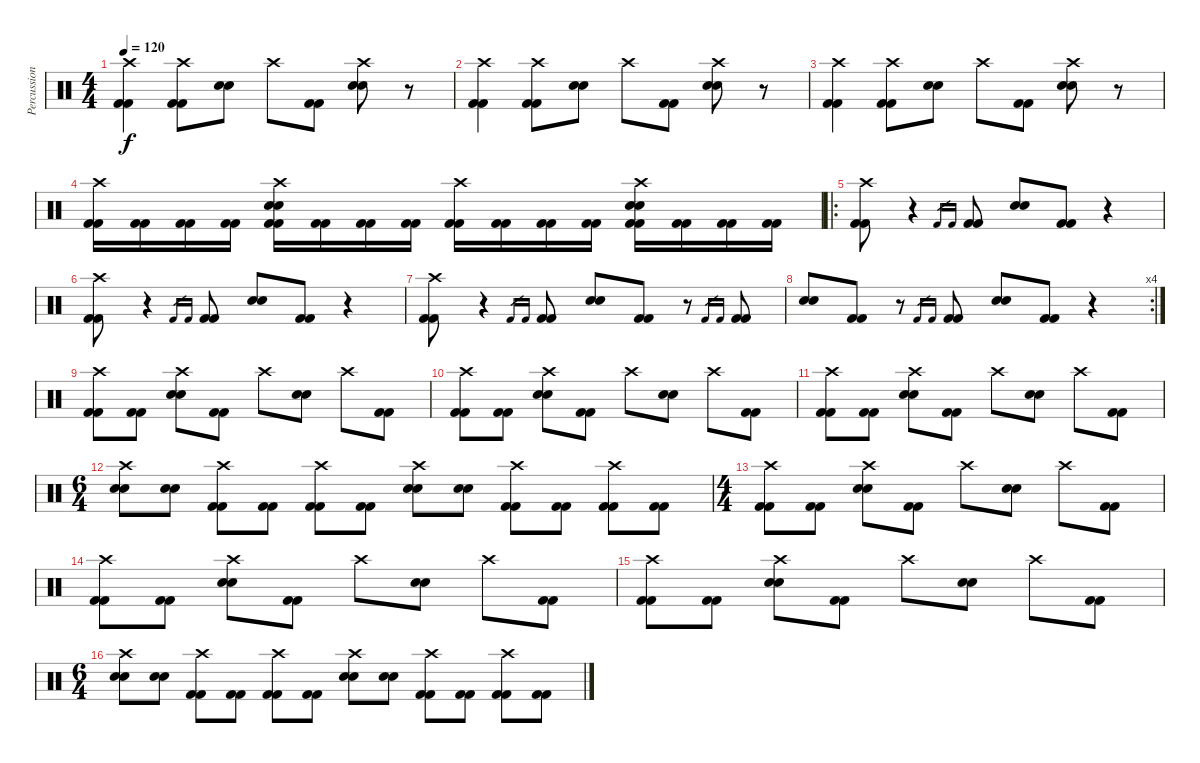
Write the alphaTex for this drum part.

\track ("Percussion" "Percussion") {instrument percussion}
\staff {score}
\articulation defaults
\ts (4 4)
\tempo 120
\clef neutral
\ks c
("Crash high (hit)" "Kick (hit) 2" "Kick (hit) 2").4{dy f} ("Crash high (hit)" "Kick (hit) 2" "Kick (hit) 2").8 ("Snare (hit) 2" "Snare (hit) 2").8 "Crash high (hit)".8 ("Kick (hit) 2" "Kick (hit) 2").8 ("Crash high (hit)" "Snare (hit) 2" "Snare (hit) 2").8 r.8 |
("Crash high (hit)" "Kick (hit) 2" "Kick (hit) 2").4 ("Crash high (hit)" "Kick (hit) 2" "Kick (hit) 2").8 ("Snare (hit) 2" "Snare (hit) 2").8 "Crash high (hit)".8 ("Kick (hit) 2" "Kick (hit) 2").8 ("Crash high (hit)" "Snare (hit) 2" "Snare (hit) 2").8 r.8 |
("Crash high (hit)" "Kick (hit) 2" "Kick (hit) 2").4 ("Crash high (hit)" "Kick (hit) 2" "Kick (hit) 2").8 ("Snare (hit) 2" "Snare (hit) 2").8 "Crash high (hit)".8 ("Kick (hit) 2" "Kick (hit) 2").8 ("Crash high (hit)" "Snare (hit) 2" "Snare (hit) 2").8 r.8 |
("Crash high (hit)" "Kick (hit) 2" "Kick (hit) 2").16 ("Kick (hit) 2" "Kick (hit) 2").16 ("Kick (hit) 2" "Kick (hit) 2").16 ("Kick (hit) 2" "Kick (hit) 2").16 ("Crash high (hit)" "Snare (hit) 2" "Snare (hit) 2" "Kick (hit) 2" "Kick (hit) 2").16 ("Kick (hit) 2" "Kick (hit) 2").16 ("Kick (hit) 2" "Kick (hit) 2").16 ("Kick (hit) 2" "Kick (hit) 2").16 ("Crash high (hit)" "Kick (hit) 2" "Kick (hit) 2").16 ("Kick (hit) 2" "Kick (hit) 2").16 ("Kick (hit) 2" "Kick (hit) 2").16 ("Kick (hit) 2" "Kick (hit) 2").16 ("Crash high (hit)" "Snare (hit) 2" "Snare (hit) 2" "Kick (hit) 2" "Kick (hit) 2").16 ("Kick (hit) 2" "Kick (hit) 2").16 ("Kick (hit) 2" "Kick (hit) 2").16 ("Kick (hit) 2" "Kick (hit) 2").16 |
\ro
("Crash high (hit)" "Kick (hit) 2" "Kick (hit) 2").8 r.4 "Kick (hit) 2".16{gr} "Kick (hit) 2".16{gr} ("Kick (hit) 2" "Kick (hit) 2").8 ("Snare (hit) 2" "Snare (hit) 2").8 ("Kick (hit) 2" "Kick (hit) 2").8 r.4 |
("Crash high (hit)" "Kick (hit) 2" "Kick (hit) 2").8 r.4 "Kick (hit) 2".16{gr} "Kick (hit) 2".16{gr} ("Kick (hit) 2" "Kick (hit) 2").8 ("Snare (hit) 2" "Snare (hit) 2").8 ("Kick (hit) 2" "Kick (hit) 2").8 r.4 |
("Crash high (hit)" "Kick (hit) 2" "Kick (hit) 2").8 r.4 "Kick (hit) 2".16{gr} "Kick (hit) 2".16{gr} ("Kick (hit) 2" "Kick (hit) 2").8 ("Snare (hit) 2" "Snare (hit) 2").8 ("Kick (hit) 2" "Kick (hit) 2").8 r.8 "Kick (hit) 2".16{gr} "Kick (hit) 2".16{gr} ("Kick (hit) 2" "Kick (hit) 2").8 |
\rc 4
("Snare (hit) 2" "Snare (hit) 2").8 ("Kick (hit) 2" "Kick (hit) 2").8 r.8 "Kick (hit) 2".16{gr} "Kick (hit) 2".16{gr} ("Kick (hit) 2" "Kick (hit) 2").8 ("Snare (hit) 2" "Snare (hit) 2").8 ("Kick (hit) 2" "Kick (hit) 2").8 r.4 |
("Crash high (hit)" "Kick (hit) 2" "Kick (hit) 2").8 ("Kick (hit) 2" "Kick (hit) 2").8 ("Crash high (hit)" "Snare (hit) 2" "Snare (hit) 2").8 ("Kick (hit) 2" "Kick (hit) 2").8 "Crash high (hit)".8 ("Snare (hit) 2" "Snare (hit) 2").8 "Crash high (hit)".8 ("Kick (hit) 2" "Kick (hit) 2").8 |
("Crash high (hit)" "Kick (hit) 2" "Kick (hit) 2").8 ("Kick (hit) 2" "Kick (hit) 2").8 ("Crash high (hit)" "Snare (hit) 2" "Snare (hit) 2").8 ("Kick (hit) 2" "Kick (hit) 2").8 "Crash high (hit)".8 ("Snare (hit) 2" "Snare (hit) 2").8 "Crash high (hit)".8 ("Kick (hit) 2" "Kick (hit) 2").8 |
("Crash high (hit)" "Kick (hit) 2" "Kick (hit) 2").8 ("Kick (hit) 2" "Kick (hit) 2").8 ("Crash high (hit)" "Snare (hit) 2" "Snare (hit) 2").8 ("Kick (hit) 2" "Kick (hit) 2").8 "Crash high (hit)".8 ("Snare (hit) 2" "Snare (hit) 2").8 "Crash high (hit)".8 ("Kick (hit) 2" "Kick (hit) 2").8 |
\ts (6 4)
("Crash high (hit)" "Snare (hit) 2" "Snare (hit) 2").8 ("Snare (hit) 2" "Snare (hit) 2").8 ("Crash high (hit)" "Kick (hit) 2" "Kick (hit) 2").8 ("Kick (hit) 2" "Kick (hit) 2").8 ("Crash high (hit)" "Kick (hit) 2" "Kick (hit) 2").8 ("Kick (hit) 2" "Kick (hit) 2").8 ("Crash high (hit)" "Snare (hit) 2" "Snare (hit) 2").8 ("Snare (hit) 2" "Snare (hit) 2").8 ("Crash high (hit)" "Kick (hit) 2" "Kick (hit) 2").8 ("Kick (hit) 2" "Kick (hit) 2").8 ("Crash high (hit)" "Kick (hit) 2" "Kick (hit) 2").8 ("Kick (hit) 2" "Kick (hit) 2").8 |
\ts (4 4)
("Crash high (hit)" "Kick (hit) 2" "Kick (hit) 2").8 ("Kick (hit) 2" "Kick (hit) 2").8 ("Crash high (hit)" "Snare (hit) 2" "Snare (hit) 2").8 ("Kick (hit) 2" "Kick (hit) 2").8 "Crash high (hit)".8 ("Snare (hit) 2" "Snare (hit) 2").8 "Crash high (hit)".8 ("Kick (hit) 2" "Kick (hit) 2").8 |
("Crash high (hit)" "Kick (hit) 2" "Kick (hit) 2").8 ("Kick (hit) 2" "Kick (hit) 2").8 ("Crash high (hit)" "Snare (hit) 2" "Snare (hit) 2").8 ("Kick (hit) 2" "Kick (hit) 2").8 "Crash high (hit)".8 ("Snare (hit) 2" "Snare (hit) 2").8 "Crash high (hit)".8 ("Kick (hit) 2" "Kick (hit) 2").8 |
("Crash high (hit)" "Kick (hit) 2" "Kick (hit) 2").8 ("Kick (hit) 2" "Kick (hit) 2").8 ("Crash high (hit)" "Snare (hit) 2" "Snare (hit) 2").8 ("Kick (hit) 2" "Kick (hit) 2").8 "Crash high (hit)".8 ("Snare (hit) 2" "Snare (hit) 2").8 "Crash high (hit)".8 ("Kick (hit) 2" "Kick (hit) 2").8 |
\ts (6 4)
("Crash high (hit)" "Snare (hit) 2" "Snare (hit) 2").8 ("Snare (hit) 2" "Snare (hit) 2").8 ("Crash high (hit)" "Kick (hit) 2" "Kick (hit) 2").8 ("Kick (hit) 2" "Kick (hit) 2").8 ("Crash high (hit)" "Kick (hit) 2" "Kick (hit) 2").8 ("Kick (hit) 2" "Kick (hit) 2").8 ("Crash high (hit)" "Snare (hit) 2" "Snare (hit) 2").8 ("Snare (hit) 2" "Snare (hit) 2").8 ("Crash high (hit)" "Kick (hit) 2" "Kick (hit) 2").8 ("Kick (hit) 2" "Kick (hit) 2").8 ("Crash high (hit)" "Kick (hit) 2" "Kick (hit) 2").8 ("Kick (hit) 2" "Kick (hit) 2").8
